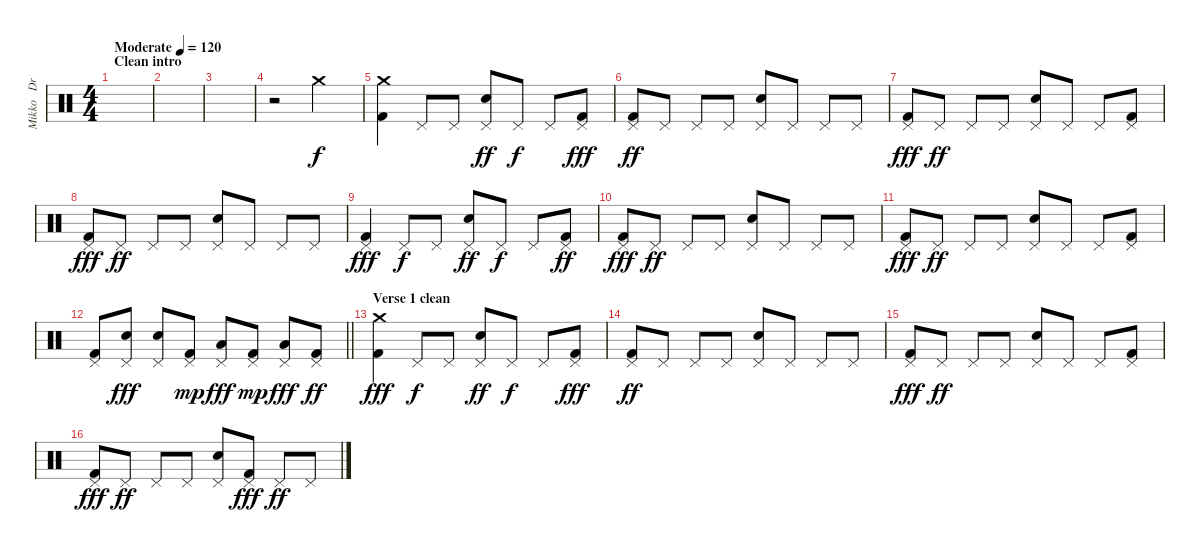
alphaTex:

\track ("Mikko   Drums" "Mikko   Dr") {instrument percussion}
\staff {score}
\articulation defaults
\ts (4 4)
\section ("" "Clean intro")
\tempo (120 "Moderate")
\clef neutral
\ks c
|
|
|
r.2{volume 6} "Crash medium (hit)".2{volume 13} |
("Crash medium (hit)" "Kick (hit) 2").4 "Pedal Hi-Hat (hit)".8{dy f} "Pedal Hi-Hat (hit)".8 ("Pedal Hi-Hat (hit)" "Snare (hit) 2").8{dy ff} "Pedal Hi-Hat (hit)".8{dy f} "Pedal Hi-Hat (hit)".8 ("Pedal Hi-Hat (hit)" "Kick (hit) 2").8{dy fff} |
("Pedal Hi-Hat (hit)" "Kick (hit) 2").8{dy ff} "Pedal Hi-Hat (hit)".8 "Pedal Hi-Hat (hit)".8 "Pedal Hi-Hat (hit)".8 ("Pedal Hi-Hat (hit)" "Snare (hit) 2").8 "Pedal Hi-Hat (hit)".8 "Pedal Hi-Hat (hit)".8 "Pedal Hi-Hat (hit)".8 |
("Pedal Hi-Hat (hit)" "Kick (hit) 2").8{dy fff} "Pedal Hi-Hat (hit)".8{dy ff} "Pedal Hi-Hat (hit)".8 "Pedal Hi-Hat (hit)".8 ("Pedal Hi-Hat (hit)" "Snare (hit) 2").8 "Pedal Hi-Hat (hit)".8 "Pedal Hi-Hat (hit)".8 ("Pedal Hi-Hat (hit)" "Kick (hit) 2").8 |
("Pedal Hi-Hat (hit)" "Kick (hit) 2").8{dy fff} "Pedal Hi-Hat (hit)".8{dy ff} "Pedal Hi-Hat (hit)".8 "Pedal Hi-Hat (hit)".8 ("Pedal Hi-Hat (hit)" "Snare (hit) 2").8 "Pedal Hi-Hat (hit)".8 "Pedal Hi-Hat (hit)".8 "Pedal Hi-Hat (hit)".8 |
("Pedal Hi-Hat (hit)" "Kick (hit) 2").4{dy fff} "Pedal Hi-Hat (hit)".8{dy f} "Pedal Hi-Hat (hit)".8 ("Pedal Hi-Hat (hit)" "Snare (hit) 2").8{dy ff} "Pedal Hi-Hat (hit)".8{dy f} "Pedal Hi-Hat (hit)".8 ("Pedal Hi-Hat (hit)" "Kick (hit) 2").8{dy ff} |
("Pedal Hi-Hat (hit)" "Kick (hit) 2").8{dy fff} "Pedal Hi-Hat (hit)".8{dy ff} "Pedal Hi-Hat (hit)".8 "Pedal Hi-Hat (hit)".8 ("Pedal Hi-Hat (hit)" "Snare (hit) 2").8 "Pedal Hi-Hat (hit)".8 "Pedal Hi-Hat (hit)".8 "Pedal Hi-Hat (hit)".8 |
("Pedal Hi-Hat (hit)" "Kick (hit) 2").8{dy fff} "Pedal Hi-Hat (hit)".8{dy ff} "Pedal Hi-Hat (hit)".8 "Pedal Hi-Hat (hit)".8 ("Pedal Hi-Hat (hit)" "Snare (hit) 2").8 "Pedal Hi-Hat (hit)".8 "Pedal Hi-Hat (hit)".8 ("Pedal Hi-Hat (hit)" "Kick (hit) 2").8 |
\barLineRight lightlight
("Pedal Hi-Hat (hit)" "Kick (hit) 2").8 ("Pedal Hi-Hat (hit)" "Snare (hit) 2").8{dy fff} ("Pedal Hi-Hat (hit)" "Snare (hit) 2").8 ("Pedal Hi-Hat (hit)" "Kick (hit) 2").8{dy mp} ("Pedal Hi-Hat (hit)" "Low Tom (hit)").8{dy fff} ("Pedal Hi-Hat (hit)" "Kick (hit) 2").8{dy mp} ("Pedal Hi-Hat (hit)" "Low Tom (hit)").8{dy fff} ("Pedal Hi-Hat (hit)" "Kick (hit) 2").8{dy ff} |
\section ("" "Verse 1 clean")
("Crash medium (hit)" "Kick (hit) 2").4{dy fff} "Pedal Hi-Hat (hit)".8{dy f} "Pedal Hi-Hat (hit)".8 ("Pedal Hi-Hat (hit)" "Snare (hit) 2").8{dy ff} "Pedal Hi-Hat (hit)".8{dy f} "Pedal Hi-Hat (hit)".8 ("Pedal Hi-Hat (hit)" "Kick (hit) 2").8{dy fff} |
("Pedal Hi-Hat (hit)" "Kick (hit) 2").8{dy ff} "Pedal Hi-Hat (hit)".8 "Pedal Hi-Hat (hit)".8 "Pedal Hi-Hat (hit)".8 ("Pedal Hi-Hat (hit)" "Snare (hit) 2").8 "Pedal Hi-Hat (hit)".8 "Pedal Hi-Hat (hit)".8 "Pedal Hi-Hat (hit)".8 |
("Pedal Hi-Hat (hit)" "Kick (hit) 2").8{dy fff} "Pedal Hi-Hat (hit)".8{dy ff} "Pedal Hi-Hat (hit)".8 "Pedal Hi-Hat (hit)".8 ("Pedal Hi-Hat (hit)" "Snare (hit) 2").8 "Pedal Hi-Hat (hit)".8 "Pedal Hi-Hat (hit)".8 ("Pedal Hi-Hat (hit)" "Kick (hit) 2").8 |
("Pedal Hi-Hat (hit)" "Kick (hit) 2").8{dy fff} "Pedal Hi-Hat (hit)".8{dy ff} "Pedal Hi-Hat (hit)".8 "Pedal Hi-Hat (hit)".8 ("Pedal Hi-Hat (hit)" "Snare (hit) 2").8 ("Pedal Hi-Hat (hit)" "Kick (hit) 2").8{dy fff} "Pedal Hi-Hat (hit)".8{dy ff} "Pedal Hi-Hat (hit)".8
